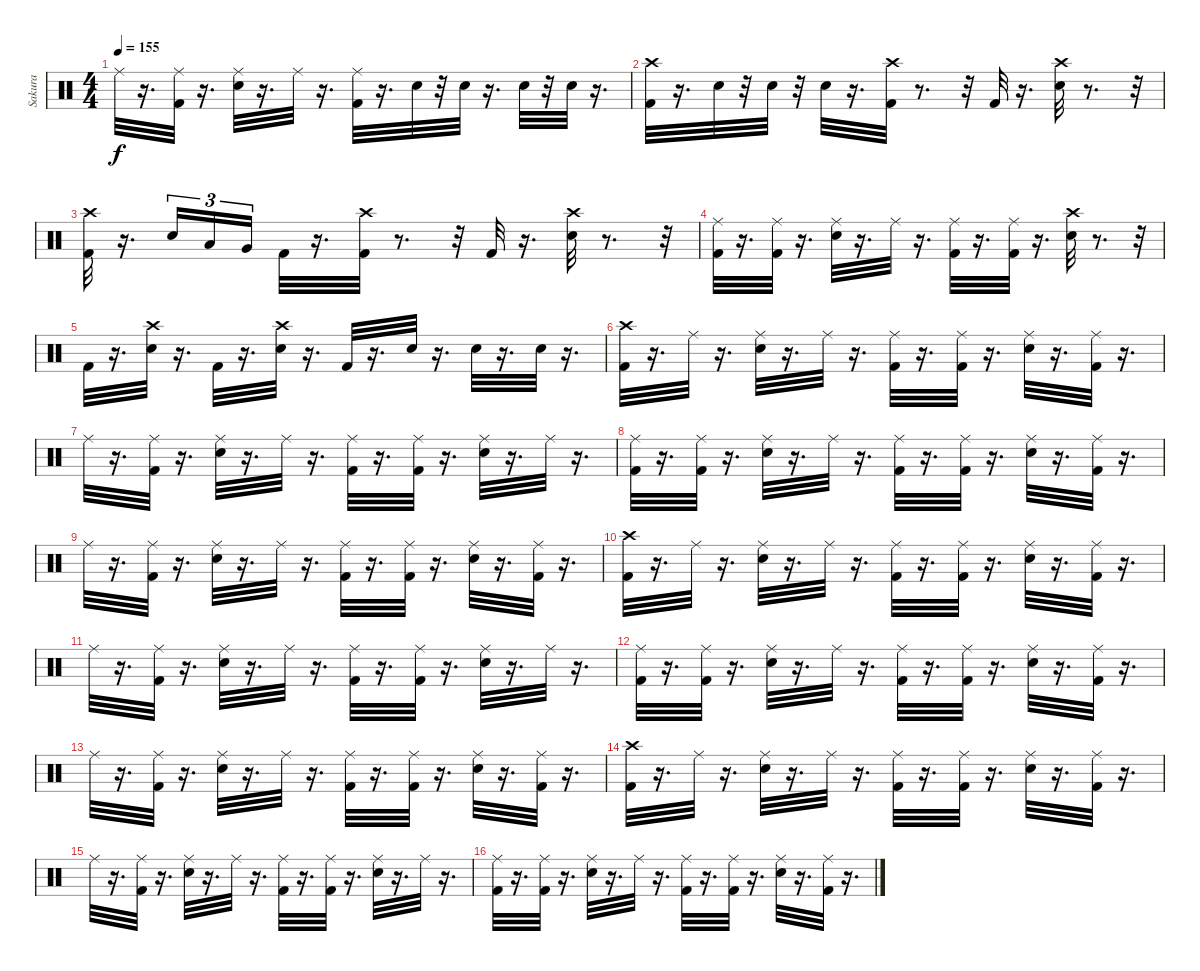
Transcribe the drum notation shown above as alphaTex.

\track ("Sakura" "Sakura") {instrument percussion}
\staff {score}
\articulation defaults
\ts (4 4)
\tempo 155
\clef neutral
\ks c "Ride (middle)".32{dy f}
r.16{d} ("Ride (middle)" "Kick (hit) 2").32 r.16{d} ("Ride (middle)" "Snare (hit) 2").32 r.16{d} "Ride (middle)".32 r.16{d} ("Ride (middle)" "Kick (hit) 2").32 r.16{d} "Snare (hit) 2".32 r.32 "Snare (hit) 2".32 r.16{d} "Snare (hit) 2".32 r.32 "Snare (hit) 2".32 r.16{d} |
("Crash high (hit)" "Kick (hit) 2").32 r.16{d} "Snare (hit) 2".32 r.32 "Snare (hit) 2".32 r.32 "Snare (hit) 2".32 r.16{d} ("Crash high (hit)" "Kick (hit) 2").32 r.8{d} r.32 "Kick (hit) 2".32 r.16{d} ("Crash high (hit)" "Snare (hit) 2").32 r.8{d} r.32 |
("Crash high (hit)" "Kick (hit) 2").32 r.16{d} "Snare (hit) 2".16{tu (3 2)} "Low Tom (hit)".16{tu (3 2)} "Very Low Tom (hit)".16{tu (3 2)} "Kick (hit) 2".32 r.16{d} ("Kick (hit) 2" "Crash high (hit)").32 r.8{d} r.32 "Kick (hit) 2".32 r.16{d} ("Crash high (hit)" "Snare (hit) 2").32 r.8{d} r.32 |
("Ride (middle)" "Kick (hit) 2").32 r.16{d} ("Ride (middle)" "Kick (hit) 2").32 r.16{d} ("Ride (middle)" "Snare (hit) 2").32 r.16{d} "Ride (middle)".32 r.16{d} ("Ride (middle)" "Kick (hit) 2").32 r.16{d} ("Ride (middle)" "Kick (hit) 2").32 r.16{d} ("Crash high (hit)" "Snare (hit) 2").32 r.8{d} r.32 |
"Kick (hit) 2".32 r.16{d} ("Crash high (hit)" "Snare (hit) 2").32 r.16{d} "Kick (hit) 2".32 r.16{d} ("Snare (hit) 2" "Crash high (hit)").32 r.16{d} "Kick (hit) 2".32 r.16{d} "Snare (hit) 2".32 r.16{d} "Snare (hit) 2".32 r.16{d} "Snare (hit) 2".32 r.16{d} |
("Crash high (hit)" "Kick (hit) 2").32 r.16{d} "Ride (middle)".32 r.16{d} ("Ride (middle)" "Snare (hit) 2").32 r.16{d} "Ride (middle)".32 r.16{d} ("Ride (middle)" "Kick (hit) 2").32 r.16{d} ("Ride (middle)" "Kick (hit) 2").32 r.16{d} ("Ride (middle)" "Snare (hit) 2").32 r.16{d} ("Ride (middle)" "Kick (hit) 2").32 r.16{d} |
"Ride (middle)".32 r.16{d} ("Ride (middle)" "Kick (hit) 2").32 r.16{d} ("Ride (middle)" "Snare (hit) 2").32 r.16{d} "Ride (middle)".32 r.16{d} ("Ride (middle)" "Kick (hit) 2").32 r.16{d} ("Ride (middle)" "Kick (hit) 2").32 r.16{d} ("Ride (middle)" "Snare (hit) 2").32 r.16{d} "Ride (middle)".32 r.16{d} |
("Ride (middle)" "Kick (hit) 2").32 r.16{d} ("Ride (middle)" "Kick (hit) 2").32 r.16{d} ("Ride (middle)" "Snare (hit) 2").32 r.16{d} "Ride (middle)".32 r.16{d} ("Ride (middle)" "Kick (hit) 2").32 r.16{d} ("Ride (middle)" "Kick (hit) 2").32 r.16{d} ("Ride (middle)" "Snare (hit) 2").32 r.16{d} ("Ride (middle)" "Kick (hit) 2").32 r.16{d} |
"Ride (middle)".32 r.16{d} ("Ride (middle)" "Kick (hit) 2").32 r.16{d} ("Ride (middle)" "Snare (hit) 2").32 r.16{d} "Ride (middle)".32 r.16{d} ("Ride (middle)" "Kick (hit) 2").32 r.16{d} ("Ride (middle)" "Kick (hit) 2").32 r.16{d} ("Ride (middle)" "Snare (hit) 2").32 r.16{d} ("Ride (middle)" "Kick (hit) 2").32 r.16{d} |
("Crash high (hit)" "Kick (hit) 2").32 r.16{d} "Ride (middle)".32 r.16{d} ("Ride (middle)" "Snare (hit) 2").32 r.16{d} "Ride (middle)".32 r.16{d} ("Ride (middle)" "Kick (hit) 2").32 r.16{d} ("Ride (middle)" "Kick (hit) 2").32 r.16{d} ("Ride (middle)" "Snare (hit) 2").32 r.16{d} ("Ride (middle)" "Kick (hit) 2").32 r.16{d} |
"Ride (middle)".32 r.16{d} ("Ride (middle)" "Kick (hit) 2").32 r.16{d} ("Ride (middle)" "Snare (hit) 2").32 r.16{d} "Ride (middle)".32 r.16{d} ("Ride (middle)" "Kick (hit) 2").32 r.16{d} ("Ride (middle)" "Kick (hit) 2").32 r.16{d} ("Ride (middle)" "Snare (hit) 2").32 r.16{d} "Ride (middle)".32 r.16{d} |
("Ride (middle)" "Kick (hit) 2").32 r.16{d} ("Ride (middle)" "Kick (hit) 2").32 r.16{d} ("Ride (middle)" "Snare (hit) 2").32 r.16{d} "Ride (middle)".32 r.16{d} ("Ride (middle)" "Kick (hit) 2").32 r.16{d} ("Ride (middle)" "Kick (hit) 2").32 r.16{d} ("Ride (middle)" "Snare (hit) 2").32 r.16{d} ("Ride (middle)" "Kick (hit) 2").32 r.16{d} |
"Ride (middle)".32 r.16{d} ("Ride (middle)" "Kick (hit) 2").32 r.16{d} ("Ride (middle)" "Snare (hit) 2").32 r.16{d} "Ride (middle)".32 r.16{d} ("Ride (middle)" "Kick (hit) 2").32 r.16{d} ("Ride (middle)" "Kick (hit) 2").32 r.16{d} ("Ride (middle)" "Snare (hit) 2").32 r.16{d} ("Ride (middle)" "Kick (hit) 2").32 r.16{d} |
("Crash high (hit)" "Kick (hit) 2").32 r.16{d} "Ride (middle)".32 r.16{d} ("Ride (middle)" "Snare (hit) 2").32 r.16{d} "Ride (middle)".32 r.16{d} ("Ride (middle)" "Kick (hit) 2").32 r.16{d} ("Ride (middle)" "Kick (hit) 2").32 r.16{d} ("Ride (middle)" "Snare (hit) 2").32 r.16{d} ("Ride (middle)" "Kick (hit) 2").32 r.16{d} |
"Ride (middle)".32 r.16{d} ("Ride (middle)" "Kick (hit) 2").32 r.16{d} ("Ride (middle)" "Snare (hit) 2").32 r.16{d} "Ride (middle)".32 r.16{d} ("Ride (middle)" "Kick (hit) 2").32 r.16{d} ("Ride (middle)" "Kick (hit) 2").32 r.16{d} ("Ride (middle)" "Snare (hit) 2").32 r.16{d} "Ride (middle)".32 r.16{d} |
("Ride (middle)" "Kick (hit) 2").32 r.16{d} ("Ride (middle)" "Kick (hit) 2").32 r.16{d} ("Ride (middle)" "Snare (hit) 2").32 r.16{d} "Ride (middle)".32 r.16{d} ("Ride (middle)" "Kick (hit) 2").32 r.16{d} ("Ride (middle)" "Kick (hit) 2").32 r.16{d} ("Ride (middle)" "Snare (hit) 2").32 r.16{d} ("Ride (middle)" "Kick (hit) 2").32 r.16{d}
